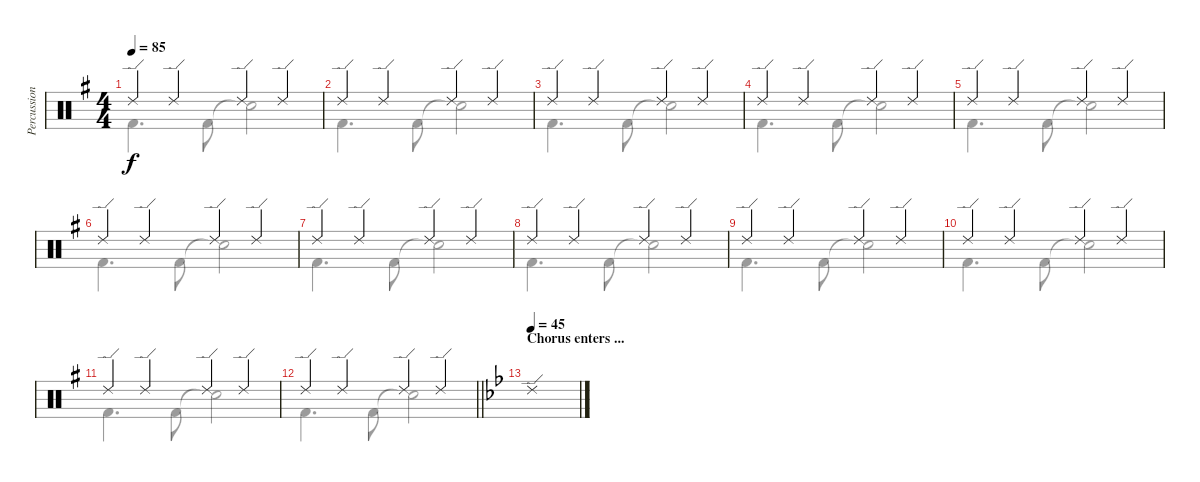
\track ("Percussion" "Percussion") {instrument percussion}
\staff {score}
\articulation defaults
\voice
\ts (4 4)
\tempo 85
\clef neutral
\ks g "Ride (edge) 2".4{dy f} "Ride (edge) 2".4 "Ride (edge) 2".4 "Ride (edge) 2".4
|
"Ride (edge) 2".4 "Ride (edge) 2".4 "Ride (edge) 2".4 "Ride (edge) 2".4 |
"Ride (edge) 2".4 "Ride (edge) 2".4 "Ride (edge) 2".4 "Ride (edge) 2".4 |
"Ride (edge) 2".4 "Ride (edge) 2".4 "Ride (edge) 2".4 "Ride (edge) 2".4 |
"Ride (edge) 2".4 "Ride (edge) 2".4 "Ride (edge) 2".4 "Ride (edge) 2".4 |
"Ride (edge) 2".4 "Ride (edge) 2".4 "Ride (edge) 2".4 "Ride (edge) 2".4 |
"Ride (edge) 2".4 "Ride (edge) 2".4 "Ride (edge) 2".4 "Ride (edge) 2".4 |
"Ride (edge) 2".4 "Ride (edge) 2".4 "Ride (edge) 2".4 "Ride (edge) 2".4 |
"Ride (edge) 2".4 "Ride (edge) 2".4 "Ride (edge) 2".4 "Ride (edge) 2".4 |
"Ride (edge) 2".4 "Ride (edge) 2".4 "Ride (edge) 2".4 "Ride (edge) 2".4 |
"Ride (edge) 2".4 "Ride (edge) 2".4 "Ride (edge) 2".4 "Ride (edge) 2".4 |
\barLineRight lightlight "Ride (edge) 2".4 "Ride (edge) 2".4 "Ride (edge) 2".4 "Ride (edge) 2".4
|
\section ("" "Chorus enters ...")
\tempo 45
\ks bb "Ride (edge) 2".1
\voice
\clef neutral
\ottava regular
\simile none
\ks g "Kick (hit) 2".4{d dy f} "Kick (hit) 2".8 "Snare (hit)"{t}.2
|
"Kick (hit) 2".4{d} "Kick (hit) 2".8 "Snare (hit)"{t}.2 |
"Kick (hit) 2".4{d} "Kick (hit) 2".8 "Snare (hit)"{t}.2 |
"Kick (hit) 2".4{d} "Kick (hit) 2".8 "Snare (hit)"{t}.2 |
"Kick (hit) 2".4{d} "Kick (hit) 2".8 "Snare (hit)"{t}.2 |
"Kick (hit) 2".4{d} "Kick (hit) 2".8 "Snare (hit)"{t}.2 |
"Kick (hit) 2".4{d} "Kick (hit) 2".8 "Snare (hit)"{t}.2 |
"Kick (hit) 2".4{d} "Kick (hit) 2".8 "Snare (hit)"{t}.2 |
"Kick (hit) 2".4{d} "Kick (hit) 2".8 "Snare (hit)"{t}.2 |
"Kick (hit) 2".4{d} "Kick (hit) 2".8 "Snare (hit)"{t}.2 |
"Kick (hit) 2".4{d} "Kick (hit) 2".8 "Snare (hit)"{t}.2 |
\barLineRight lightlight "Kick (hit) 2".4{d} "Kick (hit) 2".8 "Snare (hit)"{t}.2
|
\ks bb
